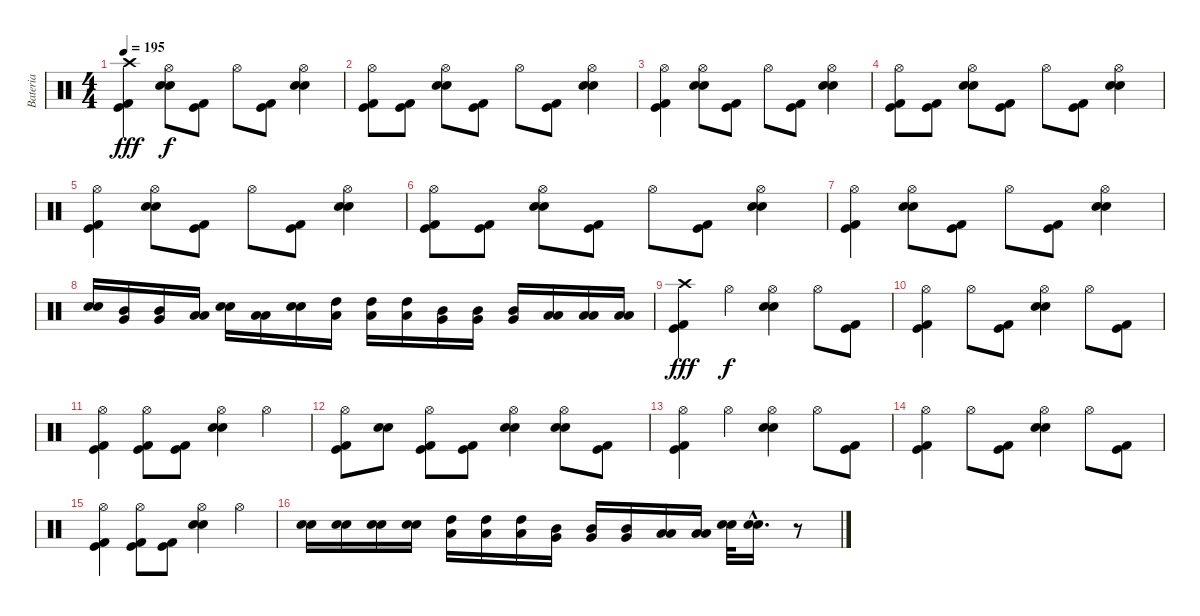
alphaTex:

\track ("Bateria" "Bateria") {instrument percussion}
\staff {score}
\articulation defaults
\ts (4 4)
\tempo 195
\clef neutral
\ks c
("Crash high (hit)" "Kick (hit) 2" "Kick (hit)").4{dy fff} ("Hi-Hat (open)" "Electric Snare (hit)" "Snare (hit) 2").8{dy f} ("Kick (hit) 2" "Kick (hit)").8 "Hi-Hat (open)".8 ("Kick (hit) 2" "Kick (hit)").8 ("Hi-Hat (open)" "Electric Snare (hit)" "Snare (hit) 2").4 |
("Hi-Hat (open)" "Kick (hit) 2" "Kick (hit)").8 ("Kick (hit) 2" "Kick (hit)").8 ("Hi-Hat (open)" "Electric Snare (hit)" "Snare (hit) 2").8 ("Kick (hit) 2" "Kick (hit)").8 "Hi-Hat (open)".8 ("Kick (hit) 2" "Kick (hit)").8 ("Hi-Hat (open)" "Electric Snare (hit)" "Snare (hit) 2").4 |
("Hi-Hat (open)" "Kick (hit) 2" "Kick (hit)").4 ("Hi-Hat (open)" "Electric Snare (hit)" "Snare (hit) 2").8 ("Kick (hit) 2" "Kick (hit)").8 "Hi-Hat (open)".8 ("Kick (hit) 2" "Kick (hit)").8 ("Hi-Hat (open)" "Electric Snare (hit)" "Snare (hit) 2").4 |
("Hi-Hat (open)" "Kick (hit) 2" "Kick (hit)").8 ("Kick (hit) 2" "Kick (hit)").8 ("Hi-Hat (open)" "Electric Snare (hit)" "Snare (hit) 2").8 ("Kick (hit) 2" "Kick (hit)").8 "Hi-Hat (open)".8 ("Kick (hit) 2" "Kick (hit)").8 ("Hi-Hat (open)" "Electric Snare (hit)" "Snare (hit) 2").4 |
("Hi-Hat (open)" "Kick (hit) 2" "Kick (hit)").4 ("Hi-Hat (open)" "Electric Snare (hit)" "Snare (hit) 2").8 ("Kick (hit) 2" "Kick (hit)").8 "Hi-Hat (open)".8 ("Kick (hit) 2" "Kick (hit)").8 ("Hi-Hat (open)" "Electric Snare (hit)" "Snare (hit) 2").4 |
("Hi-Hat (open)" "Kick (hit) 2" "Kick (hit)").8 ("Kick (hit) 2" "Kick (hit)").8 ("Hi-Hat (open)" "Electric Snare (hit)" "Snare (hit) 2").8 ("Kick (hit) 2" "Kick (hit)").8 "Hi-Hat (open)".8 ("Kick (hit) 2" "Kick (hit)").8 ("Hi-Hat (open)" "Electric Snare (hit)" "Snare (hit) 2").4 |
("Hi-Hat (open)" "Kick (hit) 2" "Kick (hit)").4 ("Hi-Hat (open)" "Electric Snare (hit)" "Snare (hit) 2").8 ("Kick (hit) 2" "Kick (hit)").8 "Hi-Hat (open)".8 ("Kick (hit) 2" "Kick (hit)").8 ("Hi-Hat (open)" "Electric Snare (hit)" "Snare (hit) 2").4 |
("Electric Snare (hit)" "Snare (hit) 2").16 ("Mid Tom (hit)" "Very Low Tom (hit)").16 ("Mid Tom (hit)" "Very Low Tom (hit)").16 ("Low Tom (hit)" "Low Floor Tom (hit)").16 ("Electric Snare (hit)" "Snare (hit) 2").16 ("Low Tom (hit)" "Low Floor Tom (hit)").16 ("Electric Snare (hit)" "Snare (hit) 2").16 ("High Tom (hit)" "Low Floor Tom (hit)").16 ("High Tom (hit)" "Low Tom (hit)").16 ("High Tom (hit)" "Low Tom (hit)").16 ("Mid Tom (hit)" "Very Low Tom (hit)").16 ("Mid Tom (hit)" "Very Low Tom (hit)").16 ("Mid Tom (hit)" "Very Low Tom (hit)").16 ("Low Tom (hit)" "Low Floor Tom (hit)").16 ("Low Tom (hit)" "Low Floor Tom (hit)").16 ("Low Tom (hit)" "Low Floor Tom (hit)").16 |
("Crash high (hit)" "Kick (hit) 2" "Kick (hit)").4{dy fff} "Hi-Hat (open)".4{dy f} ("Hi-Hat (open)" "Electric Snare (hit)" "Snare (hit) 2").4 "Hi-Hat (open)".8 ("Kick (hit) 2" "Kick (hit)").8 |
("Hi-Hat (open)" "Kick (hit) 2" "Kick (hit)").4 "Hi-Hat (open)".8 ("Kick (hit) 2" "Kick (hit)").8 ("Hi-Hat (open)" "Electric Snare (hit)" "Snare (hit) 2").4 "Hi-Hat (open)".8 ("Kick (hit) 2" "Kick (hit)").8 |
("Hi-Hat (open)" "Kick (hit) 2" "Kick (hit)").4 ("Hi-Hat (open)" "Kick (hit) 2" "Kick (hit)").8 ("Kick (hit) 2" "Kick (hit)").8 ("Hi-Hat (open)" "Electric Snare (hit)" "Snare (hit) 2").4 "Hi-Hat (open)".4 |
("Hi-Hat (open)" "Kick (hit) 2" "Kick (hit)").8 ("Electric Snare (hit)" "Snare (hit) 2").8 ("Hi-Hat (open)" "Kick (hit) 2" "Kick (hit)").8 ("Kick (hit) 2" "Kick (hit)").8 ("Hi-Hat (open)" "Electric Snare (hit)" "Snare (hit) 2").4 ("Hi-Hat (open)" "Electric Snare (hit)" "Snare (hit) 2").8 ("Kick (hit) 2" "Kick (hit)").8 |
("Hi-Hat (open)" "Kick (hit) 2" "Kick (hit)").4 "Hi-Hat (open)".4 ("Hi-Hat (open)" "Electric Snare (hit)" "Snare (hit) 2").4 "Hi-Hat (open)".8 ("Kick (hit) 2" "Kick (hit)").8 |
("Hi-Hat (open)" "Kick (hit) 2" "Kick (hit)").4 "Hi-Hat (open)".8 ("Kick (hit) 2" "Kick (hit)").8 ("Hi-Hat (open)" "Electric Snare (hit)" "Snare (hit) 2").4 "Hi-Hat (open)".8 ("Kick (hit) 2" "Kick (hit)").8 |
("Hi-Hat (open)" "Kick (hit) 2" "Kick (hit)").4 ("Hi-Hat (open)" "Kick (hit) 2" "Kick (hit)").8 ("Kick (hit) 2" "Kick (hit)").8 ("Hi-Hat (open)" "Electric Snare (hit)" "Snare (hit) 2").4 "Hi-Hat (open)".4 |
("Electric Snare (hit)" "Snare (hit) 2").16 ("Electric Snare (hit)" "Snare (hit) 2").16 ("Electric Snare (hit)" "Snare (hit) 2").16 ("Electric Snare (hit)" "Snare (hit) 2").16 ("High Tom (hit)" "Low Tom (hit)").16 ("High Tom (hit)" "Low Tom (hit)").16 ("High Tom (hit)" "Low Tom (hit)").16 ("Mid Tom (hit)" "Very Low Tom (hit)").16 ("Mid Tom (hit)" "Very Low Tom (hit)").16 ("Mid Tom (hit)" "Very Low Tom (hit)").16 ("Low Tom (hit)" "Low Floor Tom (hit)").16 ("Low Tom (hit)" "Low Floor Tom (hit)").16 ("Electric Snare (hit)" "Snare (hit) 2").32 ("Electric Snare (hit)"{hac} "Snare (hit) 2"{hac}).16{d} r.8
